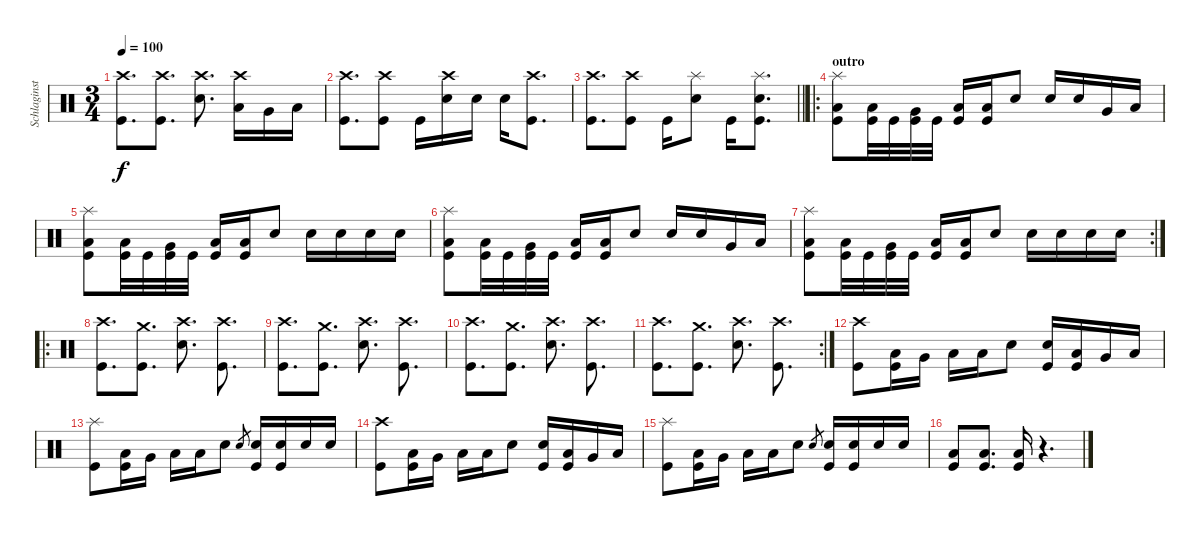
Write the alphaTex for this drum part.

\track ("Schlaginstrumente - Auswahl" "Schlaginst") {instrument percussion}
\staff {score}
\articulation defaults
\ts (3 4)
\tempo 100
\clef neutral
\ks c
("Crash high (hit)" "Kick (hit)").8{d dy f} ("Crash high (hit)" "Kick (hit)").8{d} ("Crash high (hit)" "Snare (hit) 2").8{d} ("Crash high (hit)" "Low Floor Tom (hit)").16 "Very Low Tom (hit)".16 "Low Tom (hit)".16 |
("Crash high (hit)" "Kick (hit)").8{d} ("Crash high (hit)" "Kick (hit)").8 "Kick (hit)".16 ("Crash high (hit)" "Snare (hit) 2").16 "Snare (hit) 2".16 "Snare (hit) 2".16 ("Crash high (hit)" "Kick (hit)").8{d} |
\barLineRight lightlight
("Crash high (hit)" "Kick (hit)").8{d} ("Crash high (hit)" "Kick (hit)").8 "Kick (hit)".16 ("Splash (hit)" "Snare (hit) 2").8 "Kick (hit)".16 ("Splash (hit)" "Snare (hit) 2" "Kick (hit)").8{d} |
\ro
\section ("" "outro")
("Splash (hit)" "Low Floor Tom (hit)" "Kick (hit)").8 ("Low Tom (hit)" "Kick (hit)").32 "Kick (hit)".32 ("Very Low Tom (hit)" "Kick (hit)").32 "Kick (hit)".32 ("Low Floor Tom (hit)" "Kick (hit)").16 ("Low Floor Tom (hit)" "Kick (hit)").16 "Snare (hit) 2".8 "Snare (hit) 2".16 "Snare (hit) 2".16 "Very Low Tom (hit)".16 "Low Floor Tom (hit)".16 |
("Splash (hit)" "Low Floor Tom (hit)" "Kick (hit)").8 ("Low Tom (hit)" "Kick (hit)").32 "Kick (hit)".32 ("Very Low Tom (hit)" "Kick (hit)").32 "Kick (hit)".32 ("Low Floor Tom (hit)" "Kick (hit)").16 ("Low Floor Tom (hit)" "Kick (hit)").16 "Snare (hit) 2".8 "Snare (hit) 2".16 "Snare (hit) 2".16 "Snare (hit) 2".16 "Snare (hit) 2".16 |
("Splash (hit)" "Low Floor Tom (hit)" "Kick (hit)").8 ("Low Tom (hit)" "Kick (hit)").32 "Kick (hit)".32 ("Very Low Tom (hit)" "Kick (hit)").32 "Kick (hit)".32 ("Low Floor Tom (hit)" "Kick (hit)").16 ("Low Floor Tom (hit)" "Kick (hit)").16 "Snare (hit) 2".8 "Snare (hit) 2".16 "Snare (hit) 2".16 "Very Low Tom (hit)".16 "Low Floor Tom (hit)".16 |
\rc 2
("Splash (hit)" "Low Floor Tom (hit)" "Kick (hit)").8 ("Low Tom (hit)" "Kick (hit)").32 "Kick (hit)".32 ("Very Low Tom (hit)" "Kick (hit)").32 "Kick (hit)".32 ("Low Floor Tom (hit)" "Kick (hit)").16 ("Low Floor Tom (hit)" "Kick (hit)").16 "Snare (hit) 2".8 "Snare (hit) 2".16 "Snare (hit) 2".16 "Snare (hit) 2".16 "Snare (hit) 2".16 |
\ro
("Crash high (hit)" "Kick (hit)").8{d} ("Crash medium (hit)" "Kick (hit)").8{d} ("Crash high (hit)" "Snare (hit) 2").8{d} ("Crash high (hit)" "Kick (hit)").8{d} |
("Crash high (hit)" "Kick (hit)").8{d} ("Crash medium (hit)" "Kick (hit)").8{d} ("Crash high (hit)" "Snare (hit) 2").8{d} ("Crash high (hit)" "Kick (hit)").8{d} |
("Crash high (hit)" "Kick (hit)").8{d} ("Crash medium (hit)" "Kick (hit)").8{d} ("Crash high (hit)" "Snare (hit) 2").8{d} ("Crash high (hit)" "Kick (hit)").8{d} |
\rc 2
("Crash high (hit)" "Kick (hit)").8{d} ("Crash medium (hit)" "Kick (hit)").8{d} ("Crash high (hit)" "Snare (hit) 2").8{d} ("Crash high (hit)" "Kick (hit)").8{d} |
("Crash high (hit)" "Kick (hit)").8 ("Low Tom (hit)" "Kick (hit)").16 "Very Low Tom (hit)".16 "Low Floor Tom (hit)".16 "Low Floor Tom (hit)".16 "Snare (hit) 2".8 ("Snare (hit) 2" "Kick (hit)").16 ("Low Tom (hit)" "Kick (hit)").16 "Very Low Tom (hit)".16 "Low Floor Tom (hit)".16 |
("Splash (hit)" "Kick (hit)").8 ("Low Tom (hit)" "Kick (hit)").16 "Very Low Tom (hit)".16 "Low Floor Tom (hit)".16 "Low Floor Tom (hit)".16 "Snare (hit) 2".8 "Snare (hit) 2".8{gr} ("Snare (hit) 2" "Kick (hit)").16 ("Snare (hit) 2" "Kick (hit)").16 "Snare (hit) 2".16 "Snare (hit) 2".16 |
("Crash high (hit)" "Kick (hit)").8 ("Low Tom (hit)" "Kick (hit)").16 "Very Low Tom (hit)".16 "Low Floor Tom (hit)".16 "Low Floor Tom (hit)".16 "Snare (hit) 2".8 ("Snare (hit) 2" "Kick (hit)").16 ("Low Tom (hit)" "Kick (hit)").16 "Very Low Tom (hit)".16 "Low Floor Tom (hit)".16 |
("Splash (hit)" "Kick (hit)").8 ("Low Tom (hit)" "Kick (hit)").16 "Very Low Tom (hit)".16 "Low Floor Tom (hit)".16 "Low Floor Tom (hit)".16 "Snare (hit) 2".8 "Snare (hit) 2".8{gr} ("Snare (hit) 2" "Kick (hit)").16 ("Snare (hit) 2" "Kick (hit)").16 "Snare (hit) 2".16 "Snare (hit) 2".16 |
("Low Floor Tom (hit)" "Kick (hit)").8 ("Low Floor Tom (hit)" "Kick (hit)").8{d} ("Low Floor Tom (hit)" "Kick (hit)").16 r.4{d}
